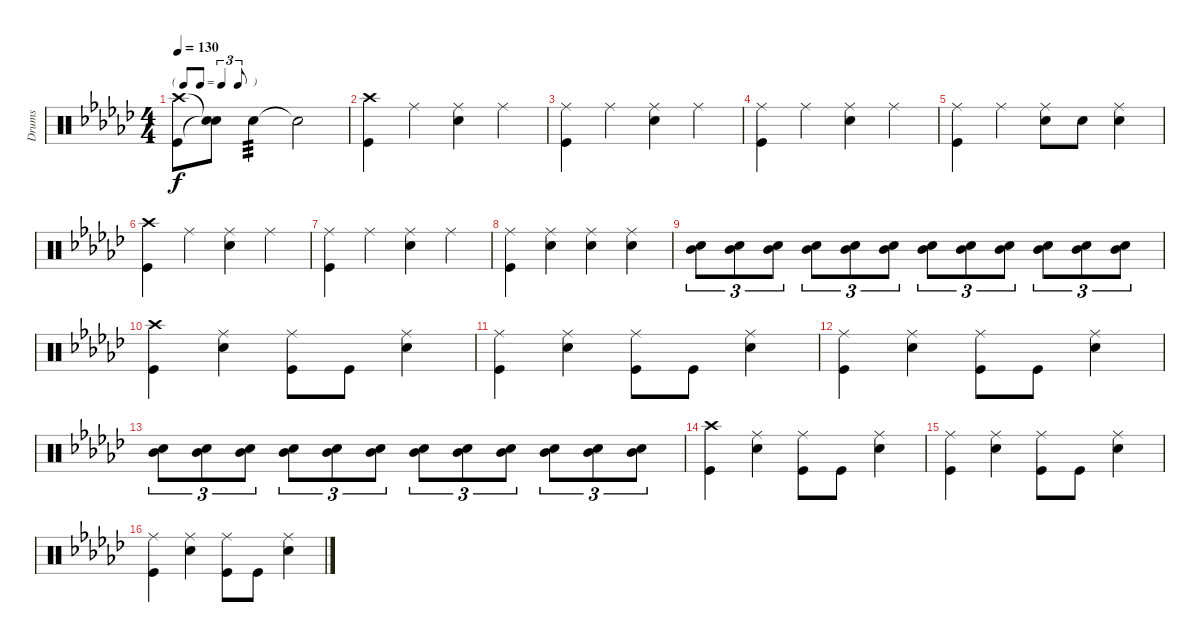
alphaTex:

\track ("Drums" "Drums") {instrument percussion}
\staff {score}
\articulation defaults
\ts (4 4)
\tf triplet8th
\tempo 130
\clef neutral
\ks gb
("Crash high (hit)" "Kick (hit)").8{dy f} ("Snare (hit)"{t} "Snare (hit)"{t}).8{volume 7} "Snare (hit) 2".4{tp 3 volume 16} "Snare (hit)"{t}.2 |
("Crash high (hit)" "Kick (hit)").4{volume 14} "Ride (middle)".4 ("Ride (middle)" "Snare (hit) 2").4 "Ride (middle)".4 |
("Ride (middle)" "Kick (hit)").4 "Ride (middle)".4 ("Ride (middle)" "Snare (hit) 2").4 "Ride (middle)".4 |
("Ride (middle)" "Kick (hit)").4 "Ride (middle)".4 ("Ride (middle)" "Snare (hit) 2").4 "Ride (middle)".4 |
("Ride (middle)" "Kick (hit)").4 "Ride (middle)".4 ("Ride (middle)" "Snare (hit) 2").8 "Snare (hit) 2".8 ("Ride (middle)" "Snare (hit) 2").4 |
("Crash high (hit)" "Kick (hit)").4 "Ride (middle)".4 ("Ride (middle)" "Snare (hit) 2").4 "Ride (middle)".4 |
("Ride (middle)" "Kick (hit)").4 "Ride (middle)".4 ("Ride (middle)" "Snare (hit) 2").4 "Ride (middle)".4 |
("Ride (middle)" "Kick (hit)").4 ("Ride (middle)" "Snare (hit) 2").4 ("Ride (middle)" "Snare (hit) 2").4 ("Ride (middle)" "Snare (hit) 2").4 |
("Mid Tom (hit)" "Snare (hit) 2").8{tu (3 2)} ("Mid Tom (hit)" "Snare (hit) 2").8{tu (3 2)} ("Mid Tom (hit)" "Snare (hit) 2").8{tu (3 2)} ("Mid Tom (hit)" "Snare (hit) 2").8{tu (3 2)} ("Mid Tom (hit)" "Snare (hit) 2").8{tu (3 2)} ("Mid Tom (hit)" "Snare (hit) 2").8{tu (3 2)} ("Mid Tom (hit)" "Snare (hit) 2").8{tu (3 2)} ("Mid Tom (hit)" "Snare (hit) 2").8{tu (3 2)} ("Mid Tom (hit)" "Snare (hit) 2").8{tu (3 2)} ("Mid Tom (hit)" "Snare (hit) 2").8{tu (3 2)} ("Mid Tom (hit)" "Snare (hit) 2").8{tu (3 2)} ("Mid Tom (hit)" "Snare (hit) 2").8{tu (3 2)} |
("Crash high (hit)" "Kick (hit)").4 ("Ride (middle)" "Snare (hit) 2").4 ("Ride (middle)" "Kick (hit)").8 "Kick (hit)".8 ("Ride (middle)" "Snare (hit) 2").4 |
("Ride (middle)" "Kick (hit)").4 ("Ride (middle)" "Snare (hit) 2").4 ("Ride (middle)" "Kick (hit)").8 "Kick (hit)".8 ("Ride (middle)" "Snare (hit) 2").4 |
("Ride (middle)" "Kick (hit)").4 ("Ride (middle)" "Snare (hit) 2").4 ("Ride (middle)" "Kick (hit)").8 "Kick (hit)".8 ("Ride (middle)" "Snare (hit) 2").4 |
("Mid Tom (hit)" "Snare (hit) 2").8{tu (3 2)} ("Mid Tom (hit)" "Snare (hit) 2").8{tu (3 2)} ("Mid Tom (hit)" "Snare (hit) 2").8{tu (3 2)} ("Mid Tom (hit)" "Snare (hit) 2").8{tu (3 2)} ("Mid Tom (hit)" "Snare (hit) 2").8{tu (3 2)} ("Mid Tom (hit)" "Snare (hit) 2").8{tu (3 2)} ("Mid Tom (hit)" "Snare (hit) 2").8{tu (3 2)} ("Mid Tom (hit)" "Snare (hit) 2").8{tu (3 2)} ("Mid Tom (hit)" "Snare (hit) 2").8{tu (3 2)} ("Mid Tom (hit)" "Snare (hit) 2").8{tu (3 2)} ("Mid Tom (hit)" "Snare (hit) 2").8{tu (3 2)} ("Mid Tom (hit)" "Snare (hit) 2").8{tu (3 2)} |
("Crash high (hit)" "Kick (hit)").4 ("Ride (middle)" "Snare (hit) 2").4 ("Ride (middle)" "Kick (hit)").8 "Kick (hit)".8 ("Ride (middle)" "Snare (hit) 2").4 |
("Ride (middle)" "Kick (hit)").4 ("Ride (middle)" "Snare (hit) 2").4 ("Ride (middle)" "Kick (hit)").8 "Kick (hit)".8 ("Ride (middle)" "Snare (hit) 2").4 |
("Ride (middle)" "Kick (hit)").4 ("Ride (middle)" "Snare (hit) 2").4 ("Ride (middle)" "Kick (hit)").8 "Kick (hit)".8 ("Ride (middle)" "Snare (hit) 2").4
